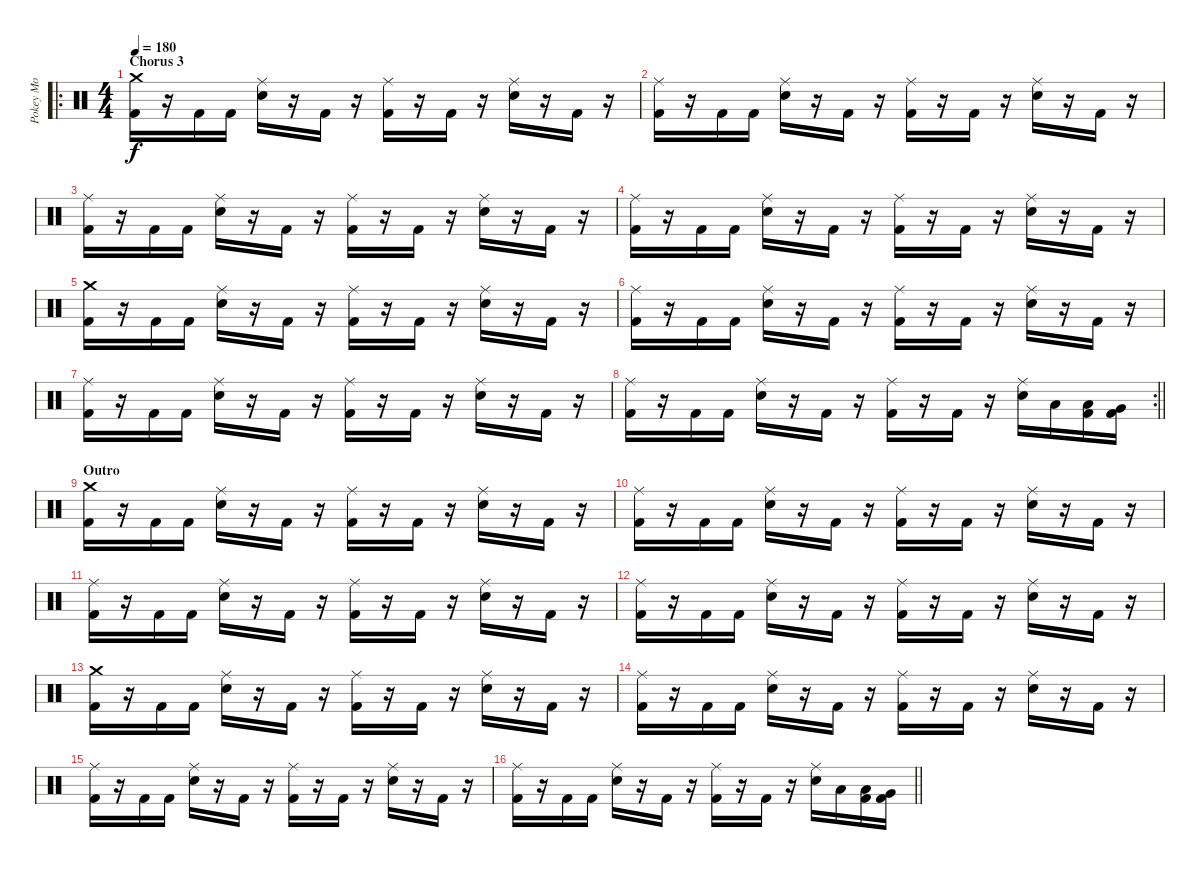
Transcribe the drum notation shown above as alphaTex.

\track ("Pokey Mo" "Pokey Mo") {instrument percussion}
\staff {score}
\articulation defaults
\ro
\ts (4 4)
\section ("" "Chorus 3")
\tempo 180
\clef neutral
\ks c
("Crash medium (hit)" "Kick (hit) 2").16{dy f} r.16 "Kick (hit) 2".16 "Kick (hit) 2".16 ("Ride (middle)" "Electric Snare (hit)").16 r.16 "Kick (hit) 2".16 r.16 ("Ride (middle)" "Kick (hit) 2").16 r.16 "Kick (hit) 2".16 r.16 ("Ride (middle)" "Electric Snare (hit)").16 r.16 "Kick (hit) 2".16 r.16 |
("Ride (middle)" "Kick (hit) 2").16 r.16 "Kick (hit) 2".16 "Kick (hit) 2".16 ("Ride (middle)" "Electric Snare (hit)").16 r.16 "Kick (hit) 2".16 r.16 ("Ride (middle)" "Kick (hit) 2").16 r.16 "Kick (hit) 2".16 r.16 ("Ride (middle)" "Electric Snare (hit)").16 r.16 "Kick (hit) 2".16 r.16 |
("Ride (middle)" "Kick (hit) 2").16 r.16 "Kick (hit) 2".16 "Kick (hit) 2".16 ("Ride (middle)" "Electric Snare (hit)").16 r.16 "Kick (hit) 2".16 r.16 ("Ride (middle)" "Kick (hit) 2").16 r.16 "Kick (hit) 2".16 r.16 ("Ride (middle)" "Electric Snare (hit)").16 r.16 "Kick (hit) 2".16 r.16 |
("Ride (middle)" "Kick (hit) 2").16 r.16 "Kick (hit) 2".16 "Kick (hit) 2".16 ("Ride (middle)" "Electric Snare (hit)").16 r.16 "Kick (hit) 2".16 r.16 ("Ride (middle)" "Kick (hit) 2").16 r.16 "Kick (hit) 2".16 r.16 ("Ride (middle)" "Electric Snare (hit)").16 r.16 "Kick (hit) 2".16 r.16 |
("Crash medium (hit)" "Kick (hit) 2").16 r.16 "Kick (hit) 2".16 "Kick (hit) 2".16 ("Ride (middle)" "Electric Snare (hit)").16 r.16 "Kick (hit) 2".16 r.16 ("Ride (middle)" "Kick (hit) 2").16 r.16 "Kick (hit) 2".16 r.16 ("Ride (middle)" "Electric Snare (hit)").16 r.16 "Kick (hit) 2".16 r.16 |
("Ride (middle)" "Kick (hit) 2").16 r.16 "Kick (hit) 2".16 "Kick (hit) 2".16 ("Ride (middle)" "Electric Snare (hit)").16 r.16 "Kick (hit) 2".16 r.16 ("Ride (middle)" "Kick (hit) 2").16 r.16 "Kick (hit) 2".16 r.16 ("Ride (middle)" "Electric Snare (hit)").16 r.16 "Kick (hit) 2".16 r.16 |
("Ride (middle)" "Kick (hit) 2").16 r.16 "Kick (hit) 2".16 "Kick (hit) 2".16 ("Ride (middle)" "Electric Snare (hit)").16 r.16 "Kick (hit) 2".16 r.16 ("Ride (middle)" "Kick (hit) 2").16 r.16 "Kick (hit) 2".16 r.16 ("Ride (middle)" "Electric Snare (hit)").16 r.16 "Kick (hit) 2".16 r.16 |
\rc 2
\barLineRight lightlight
("Ride (middle)" "Kick (hit) 2").16 r.16 "Kick (hit) 2".16 "Kick (hit) 2".16 ("Ride (middle)" "Electric Snare (hit)").16 r.16 "Kick (hit) 2".16 r.16 ("Ride (middle)" "Kick (hit) 2").16 r.16 "Kick (hit) 2".16 r.16 ("Ride (middle)" "Electric Snare (hit)").16 "Low Tom (hit)".16 ("Low Tom (hit)" "Kick (hit) 2").16 ("Very Low Tom (hit)" "Kick (hit) 2").16 |
\section ("" "Outro")
("Crash medium (hit)" "Kick (hit) 2").16 r.16 "Kick (hit) 2".16 "Kick (hit) 2".16 ("Ride (middle)" "Electric Snare (hit)").16 r.16 "Kick (hit) 2".16 r.16 ("Ride (middle)" "Kick (hit) 2").16 r.16 "Kick (hit) 2".16 r.16 ("Ride (middle)" "Electric Snare (hit)").16 r.16 "Kick (hit) 2".16 r.16 |
("Ride (middle)" "Kick (hit) 2").16 r.16 "Kick (hit) 2".16 "Kick (hit) 2".16 ("Ride (middle)" "Electric Snare (hit)").16 r.16 "Kick (hit) 2".16 r.16 ("Ride (middle)" "Kick (hit) 2").16 r.16 "Kick (hit) 2".16 r.16 ("Ride (middle)" "Electric Snare (hit)").16 r.16 "Kick (hit) 2".16 r.16 |
("Ride (middle)" "Kick (hit) 2").16 r.16 "Kick (hit) 2".16 "Kick (hit) 2".16 ("Ride (middle)" "Electric Snare (hit)").16 r.16 "Kick (hit) 2".16 r.16 ("Ride (middle)" "Kick (hit) 2").16 r.16 "Kick (hit) 2".16 r.16 ("Ride (middle)" "Electric Snare (hit)").16 r.16 "Kick (hit) 2".16 r.16 |
("Ride (middle)" "Kick (hit) 2").16 r.16 "Kick (hit) 2".16 "Kick (hit) 2".16 ("Ride (middle)" "Electric Snare (hit)").16 r.16 "Kick (hit) 2".16 r.16 ("Ride (middle)" "Kick (hit) 2").16 r.16 "Kick (hit) 2".16 r.16 ("Ride (middle)" "Electric Snare (hit)").16 r.16 "Kick (hit) 2".16 r.16 |
("Crash medium (hit)" "Kick (hit) 2").16 r.16 "Kick (hit) 2".16 "Kick (hit) 2".16 ("Ride (middle)" "Electric Snare (hit)").16 r.16 "Kick (hit) 2".16 r.16 ("Ride (middle)" "Kick (hit) 2").16 r.16 "Kick (hit) 2".16 r.16 ("Ride (middle)" "Electric Snare (hit)").16 r.16 "Kick (hit) 2".16 r.16 |
("Ride (middle)" "Kick (hit) 2").16 r.16 "Kick (hit) 2".16 "Kick (hit) 2".16 ("Ride (middle)" "Electric Snare (hit)").16 r.16 "Kick (hit) 2".16 r.16 ("Ride (middle)" "Kick (hit) 2").16 r.16 "Kick (hit) 2".16 r.16 ("Ride (middle)" "Electric Snare (hit)").16 r.16 "Kick (hit) 2".16 r.16 |
("Ride (middle)" "Kick (hit) 2").16 r.16 "Kick (hit) 2".16 "Kick (hit) 2".16 ("Ride (middle)" "Electric Snare (hit)").16 r.16 "Kick (hit) 2".16 r.16 ("Ride (middle)" "Kick (hit) 2").16 r.16 "Kick (hit) 2".16 r.16 ("Ride (middle)" "Electric Snare (hit)").16 r.16 "Kick (hit) 2".16 r.16 |
\barLineRight lightlight
("Ride (middle)" "Kick (hit) 2").16 r.16 "Kick (hit) 2".16 "Kick (hit) 2".16 ("Ride (middle)" "Electric Snare (hit)").16 r.16 "Kick (hit) 2".16 r.16 ("Ride (middle)" "Kick (hit) 2").16 r.16 "Kick (hit) 2".16 r.16 ("Ride (middle)" "Electric Snare (hit)").16 "Low Tom (hit)".16 ("Low Tom (hit)" "Kick (hit) 2").16 ("Very Low Tom (hit)" "Kick (hit) 2").16
